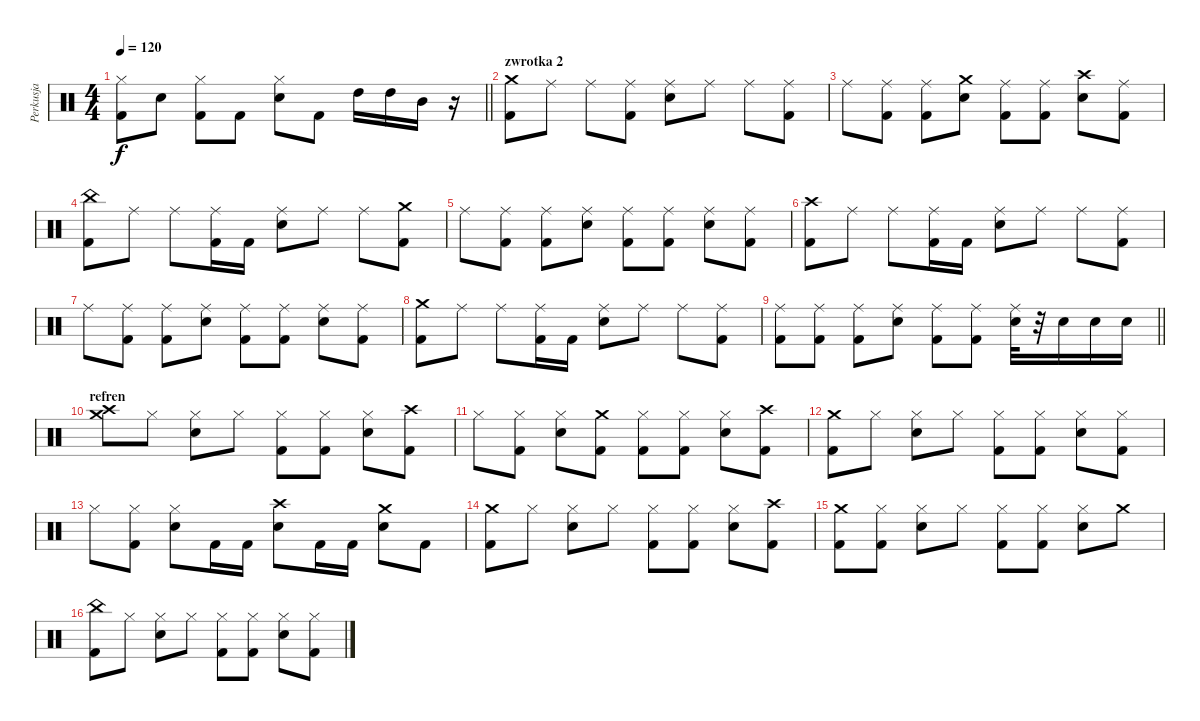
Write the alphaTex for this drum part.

\track ("Perkusja" "Perkusja") {instrument percussion}
\staff {score}
\articulation defaults
\ts (4 4)
\tempo 120
\clef neutral
\barLineRight lightlight
\ks c
("Hi-Hat (closed)" "Kick (hit) 2").8{dy f} "Snare (hit) 2".8 ("Hi-Hat (closed)" "Kick (hit) 2").8 "Kick (hit) 2".8 ("Hi-Hat (closed)" "Snare (hit) 2").8 "Kick (hit) 2".8 "High Tom (hit)".16 "High Tom (hit)".16 "Mid Tom (hit)".16 r.16 |
\section ("" "zwrotka 2")
("Crash medium (hit)" "Kick (hit) 2").8 "Ride (middle)".8 "Ride (middle)".8 ("Ride (middle)" "Kick (hit) 2").8 ("Ride (middle)" "Snare (hit) 2").8 "Ride (middle)".8 "Ride (middle)".8 ("Ride (middle)" "Kick (hit) 2").8 |
"Ride (middle)".8 ("Ride (middle)" "Kick (hit) 2").8 ("Ride (middle)" "Kick (hit) 2").8 ("Crash medium (hit)" "Snare (hit) 2").8 ("Ride (middle)" "Kick (hit) 2").8 ("Ride (middle)" "Kick (hit) 2").8 ("Crash high (hit)" "Snare (hit) 2").8 ("Ride (middle)" "Kick (hit) 2").8 |
("China (hit)" "Kick (hit) 2").8 "Ride (middle)".8 "Ride (middle)".8 ("Ride (middle)" "Kick (hit) 2").16 "Kick (hit) 2".16 ("Ride (middle)" "Snare (hit) 2").8 "Ride (middle)".8 "Ride (middle)".8 ("Crash medium (hit)" "Kick (hit) 2").8 |
"Ride (middle)".8 ("Ride (middle)" "Kick (hit) 2").8 ("Ride (middle)" "Kick (hit) 2").8 ("Ride (middle)" "Snare (hit) 2").8 ("Ride (middle)" "Kick (hit) 2").8 ("Ride (middle)" "Kick (hit) 2").8 ("Ride (middle)" "Snare (hit) 2").8 ("Ride (middle)" "Kick (hit) 2").8 |
("Crash high (hit)" "Kick (hit) 2").8 "Ride (middle)".8 "Ride (middle)".8 ("Ride (middle)" "Kick (hit) 2").16 "Kick (hit) 2".16 ("Ride (middle)" "Snare (hit) 2").8 "Ride (middle)".8 "Ride (middle)".8 ("Ride (middle)" "Kick (hit) 2").8 |
"Ride (middle)".8 ("Ride (middle)" "Kick (hit) 2").8 ("Ride (middle)" "Kick (hit) 2").8 ("Ride (middle)" "Snare (hit) 2").8 ("Ride (middle)" "Kick (hit) 2").8 ("Ride (middle)" "Kick (hit) 2").8 ("Ride (middle)" "Snare (hit) 2").8 ("Ride (middle)" "Kick (hit) 2").8 |
("Crash medium (hit)" "Kick (hit) 2").8 "Ride (middle)".8 "Ride (middle)".8 ("Ride (middle)" "Kick (hit) 2").16 "Kick (hit) 2".16 ("Ride (middle)" "Snare (hit) 2").8 "Ride (middle)".8 "Ride (middle)".8 ("Ride (middle)" "Kick (hit) 2").8 |
\barLineRight lightlight
("Ride (middle)" "Kick (hit) 2").8 ("Ride (middle)" "Kick (hit) 2").8 ("Ride (middle)" "Kick (hit) 2").8 ("Ride (middle)" "Snare (hit) 2").8 ("Ride (middle)" "Kick (hit) 2").8 ("Ride (middle)" "Kick (hit) 2").8 ("Ride (middle)" "Snare (hit) 2").32 r.32 "Snare (hit) 2".16 "Snare (hit) 2".16 "Snare (hit) 2".16 |
\section ("" "refren")
("Crash high (hit)" "Crash medium (hit)").8 "Hi-Hat (closed)".8 ("Hi-Hat (closed)" "Snare (hit) 2").8 "Hi-Hat (closed)".8 ("Hi-Hat (closed)" "Kick (hit) 2").8 ("Hi-Hat (closed)" "Kick (hit) 2").8 ("Hi-Hat (closed)" "Snare (hit) 2").8 ("Crash high (hit)" "Kick (hit) 2").8 |
"Hi-Hat (closed)".8 ("Hi-Hat (closed)" "Kick (hit) 2").8 ("Hi-Hat (closed)" "Snare (hit) 2").8 ("Crash medium (hit)" "Kick (hit) 2").8 ("Hi-Hat (closed)" "Kick (hit) 2").8 ("Hi-Hat (closed)" "Kick (hit) 2").8 ("Hi-Hat (closed)" "Snare (hit) 2").8 ("Crash high (hit)" "Kick (hit) 2").8 |
("Crash medium (hit)" "Kick (hit) 2").8 "Hi-Hat (closed)".8 ("Hi-Hat (closed)" "Snare (hit) 2").8 "Hi-Hat (closed)".8 ("Hi-Hat (closed)" "Kick (hit) 2").8 ("Hi-Hat (closed)" "Kick (hit) 2").8 ("Hi-Hat (closed)" "Snare (hit) 2").8 ("Hi-Hat (closed)" "Kick (hit) 2").8 |
"Hi-Hat (closed)".8 ("Hi-Hat (closed)" "Kick (hit) 2").8 ("Hi-Hat (closed)" "Snare (hit) 2").8 "Kick (hit) 2".16 "Kick (hit) 2".16 ("Crash high (hit)" "Snare (hit) 2").8 "Kick (hit) 2".16 "Kick (hit) 2".16 ("Crash medium (hit)" "Snare (hit) 2").8 "Kick (hit) 2".8 |
("Kick (hit) 2" "Crash medium (hit)").8 "Hi-Hat (closed)".8 ("Hi-Hat (closed)" "Snare (hit) 2").8 "Hi-Hat (closed)".8 ("Hi-Hat (closed)" "Kick (hit) 2").8 ("Hi-Hat (closed)" "Kick (hit) 2").8 ("Hi-Hat (closed)" "Snare (hit) 2").8 ("Crash high (hit)" "Kick (hit) 2").8 |
("Crash medium (hit)" "Kick (hit) 2").8 ("Hi-Hat (closed)" "Kick (hit) 2").8 ("Hi-Hat (closed)" "Snare (hit) 2").8 "Hi-Hat (closed)".8 ("Hi-Hat (closed)" "Kick (hit) 2").8 ("Hi-Hat (closed)" "Kick (hit) 2").8 ("Hi-Hat (closed)" "Snare (hit) 2").8 "Crash medium (hit)".8 |
("China (hit)" "Kick (hit) 2").8 "Hi-Hat (closed)".8 ("Hi-Hat (closed)" "Snare (hit) 2").8 "Hi-Hat (closed)".8 ("Hi-Hat (closed)" "Kick (hit) 2").8 ("Hi-Hat (closed)" "Kick (hit) 2").8 ("Hi-Hat (closed)" "Snare (hit) 2").8 ("Hi-Hat (closed)" "Kick (hit) 2").8
